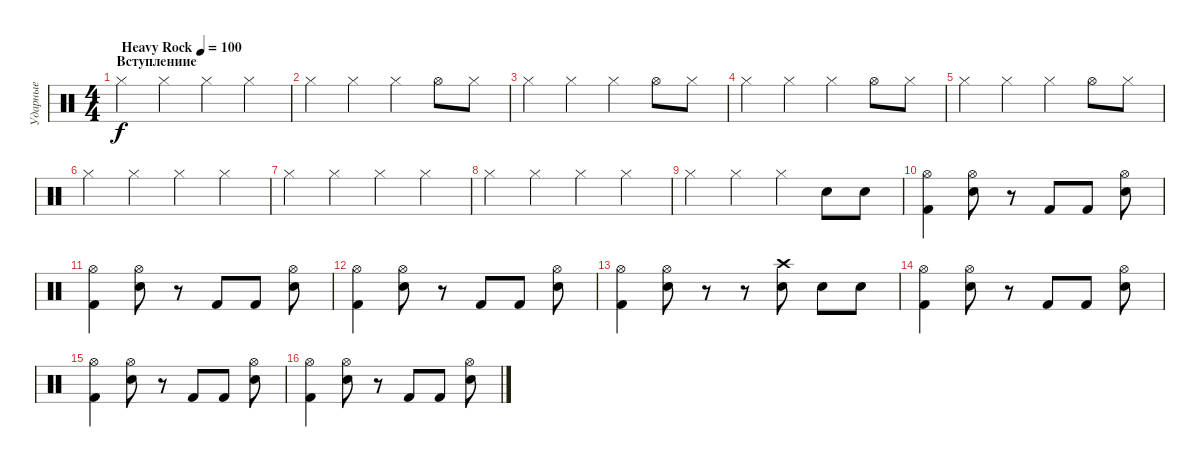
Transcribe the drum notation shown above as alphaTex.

\track ("Ударные" "Ударные") {instrument percussion}
\staff {score}
\articulation defaults
\ts (4 4)
\section ("" "Вступлениие")
\tempo (100 "Heavy Rock")
\clef neutral
\ks c "Hi-Hat (closed)".4{dy f} "Hi-Hat (closed)".4 "Hi-Hat (closed)".4 "Hi-Hat (closed)".4
|
"Hi-Hat (closed)".4 "Hi-Hat (closed)".4 "Hi-Hat (closed)".4 "Hi-Hat (open)".8 "Hi-Hat (closed)".8 |
"Hi-Hat (closed)".4 "Hi-Hat (closed)".4 "Hi-Hat (closed)".4 "Hi-Hat (open)".8 "Hi-Hat (closed)".8 |
"Hi-Hat (closed)".4 "Hi-Hat (closed)".4 "Hi-Hat (closed)".4 "Hi-Hat (open)".8 "Hi-Hat (closed)".8 |
"Hi-Hat (closed)".4 "Hi-Hat (closed)".4 "Hi-Hat (closed)".4 "Hi-Hat (open)".8 "Hi-Hat (closed)".8 |
"Hi-Hat (closed)".4 "Hi-Hat (closed)".4 "Hi-Hat (closed)".4 "Hi-Hat (closed)".4 |
"Hi-Hat (closed)".4 "Hi-Hat (closed)".4 "Hi-Hat (closed)".4 "Hi-Hat (closed)".4 |
"Hi-Hat (closed)".4 "Hi-Hat (closed)".4 "Hi-Hat (closed)".4 "Hi-Hat (closed)".4 |
"Hi-Hat (closed)".4 "Hi-Hat (closed)".4 "Hi-Hat (closed)".4 "Snare (hit) 2".8 "Snare (hit) 2".8 |
("Kick (hit) 2" "Hi-Hat (open)").4 ("Snare (hit) 2" "Hi-Hat (open)").8 r.8 "Kick (hit) 2".8 "Kick (hit) 2".8 ("Snare (hit) 2" "Hi-Hat (open)").8 |
("Kick (hit) 2" "Hi-Hat (open)").4 ("Snare (hit) 2" "Hi-Hat (open)").8 r.8 "Kick (hit) 2".8 "Kick (hit) 2".8 ("Snare (hit) 2" "Hi-Hat (open)").8 |
("Kick (hit) 2" "Hi-Hat (open)").4 ("Snare (hit) 2" "Hi-Hat (open)").8 r.8 "Kick (hit) 2".8 "Kick (hit) 2".8 ("Snare (hit) 2" "Hi-Hat (open)").8 |
("Kick (hit) 2" "Hi-Hat (open)").4 ("Snare (hit) 2" "Hi-Hat (open)").8 r.8 r.8 ("Snare (hit) 2" "Crash high (hit)").8 "Snare (hit) 2".8 "Snare (hit) 2".8 |
("Kick (hit) 2" "Hi-Hat (open)").4 ("Snare (hit) 2" "Hi-Hat (open)").8 r.8 "Kick (hit) 2".8 "Kick (hit) 2".8 ("Snare (hit) 2" "Hi-Hat (open)").8 |
("Kick (hit) 2" "Hi-Hat (open)").4 ("Snare (hit) 2" "Hi-Hat (open)").8 r.8 "Kick (hit) 2".8 "Kick (hit) 2".8 ("Snare (hit) 2" "Hi-Hat (open)").8 |
("Kick (hit) 2" "Hi-Hat (open)").4 ("Snare (hit) 2" "Hi-Hat (open)").8 r.8 "Kick (hit) 2".8 "Kick (hit) 2".8 ("Snare (hit) 2" "Hi-Hat (open)").8
